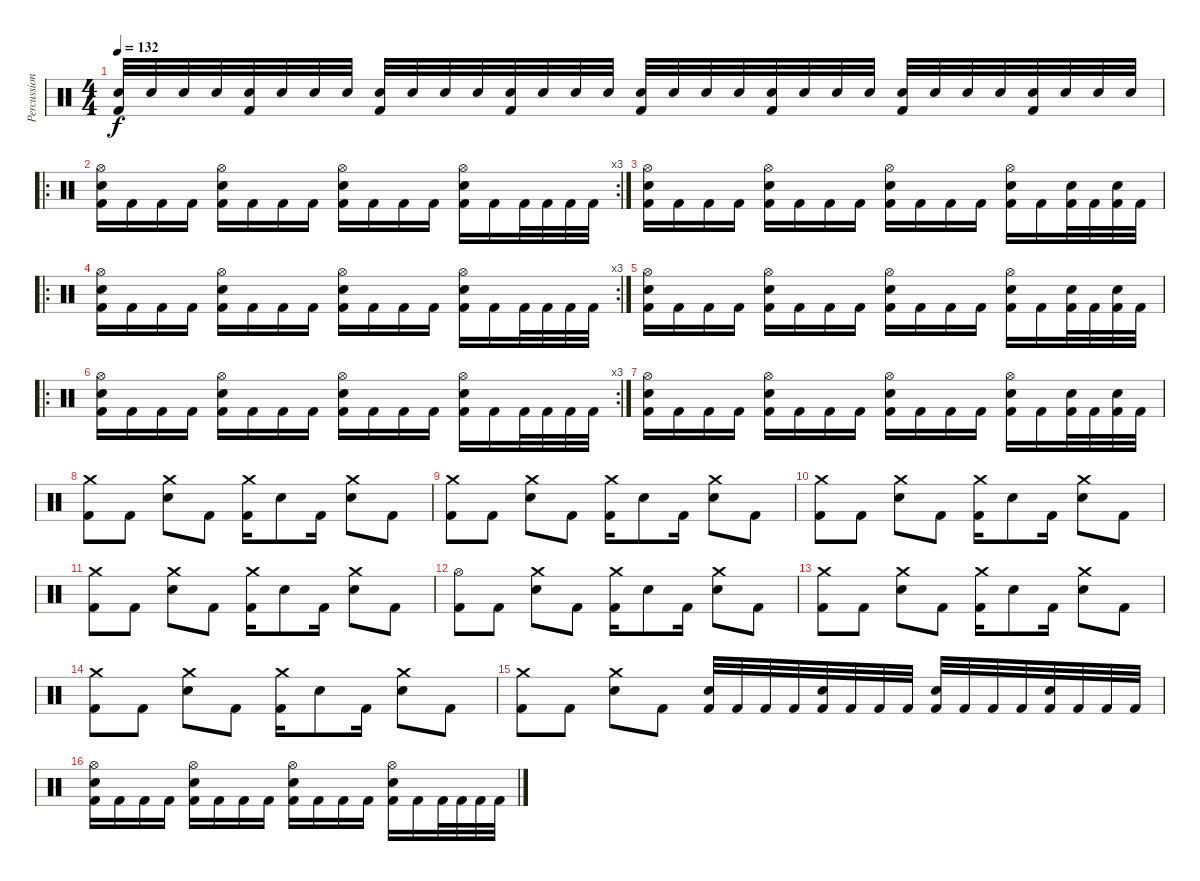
\track ("Percussion" "Percussion") {instrument percussion}
\staff {score}
\articulation defaults
\ts (4 4)
\tempo 132
\clef neutral
\ks c
("Kick (hit) 2" "Electric Snare (hit)").32{dy f} "Electric Snare (hit)".32 "Electric Snare (hit)".32 "Electric Snare (hit)".32 ("Kick (hit) 2" "Electric Snare (hit)").32 "Electric Snare (hit)".32 "Electric Snare (hit)".32 "Electric Snare (hit)".32 ("Kick (hit) 2" "Electric Snare (hit)").32 "Electric Snare (hit)".32 "Electric Snare (hit)".32 "Electric Snare (hit)".32 ("Kick (hit) 2" "Electric Snare (hit)").32 "Electric Snare (hit)".32 "Electric Snare (hit)".32 "Electric Snare (hit)".32 ("Kick (hit) 2" "Electric Snare (hit)").32 "Electric Snare (hit)".32 "Electric Snare (hit)".32 "Electric Snare (hit)".32 ("Kick (hit) 2" "Electric Snare (hit)").32 "Electric Snare (hit)".32 "Electric Snare (hit)".32 "Electric Snare (hit)".32 ("Kick (hit) 2" "Electric Snare (hit)").32 "Electric Snare (hit)".32 "Electric Snare (hit)".32 "Electric Snare (hit)".32 ("Kick (hit) 2" "Electric Snare (hit)").32 "Electric Snare (hit)".32 "Electric Snare (hit)".32 "Electric Snare (hit)".32 |
\ro
\rc 3
("Kick (hit) 2" "Electric Snare (hit)" "Hi-Hat (open)").16 "Kick (hit) 2".16 "Kick (hit) 2".16 "Kick (hit) 2".16 ("Kick (hit) 2" "Electric Snare (hit)" "Hi-Hat (open)").16 "Kick (hit) 2".16 "Kick (hit) 2".16 "Kick (hit) 2".16 ("Kick (hit) 2" "Electric Snare (hit)" "Hi-Hat (open)").16 "Kick (hit) 2".16 "Kick (hit) 2".16 "Kick (hit) 2".16 ("Kick (hit) 2" "Electric Snare (hit)" "Hi-Hat (open)").16 "Kick (hit) 2".16 "Kick (hit) 2".32 "Kick (hit) 2".32 "Kick (hit) 2".32 "Kick (hit) 2".32 |
("Kick (hit) 2" "Electric Snare (hit)" "Hi-Hat (open)").16 "Kick (hit) 2".16 "Kick (hit) 2".16 "Kick (hit) 2".16 ("Kick (hit) 2" "Electric Snare (hit)" "Hi-Hat (open)").16 "Kick (hit) 2".16 "Kick (hit) 2".16 "Kick (hit) 2".16 ("Kick (hit) 2" "Electric Snare (hit)" "Hi-Hat (open)").16 "Kick (hit) 2".16 "Kick (hit) 2".16 "Kick (hit) 2".16 ("Kick (hit) 2" "Electric Snare (hit)" "Hi-Hat (open)").16 "Kick (hit) 2".16 ("Kick (hit) 2" "Electric Snare (hit)").32 "Kick (hit) 2".32 ("Kick (hit) 2" "Electric Snare (hit)").32 "Kick (hit) 2".32 |
\ro
\rc 3
("Kick (hit) 2" "Electric Snare (hit)" "Hi-Hat (open)").16 "Kick (hit) 2".16 "Kick (hit) 2".16 "Kick (hit) 2".16 ("Kick (hit) 2" "Electric Snare (hit)" "Hi-Hat (open)").16 "Kick (hit) 2".16 "Kick (hit) 2".16 "Kick (hit) 2".16 ("Kick (hit) 2" "Electric Snare (hit)" "Hi-Hat (open)").16 "Kick (hit) 2".16 "Kick (hit) 2".16 "Kick (hit) 2".16 ("Kick (hit) 2" "Electric Snare (hit)" "Hi-Hat (open)").16 "Kick (hit) 2".16 "Kick (hit) 2".32 "Kick (hit) 2".32 "Kick (hit) 2".32 "Kick (hit) 2".32 |
("Kick (hit) 2" "Electric Snare (hit)" "Hi-Hat (open)").16 "Kick (hit) 2".16 "Kick (hit) 2".16 "Kick (hit) 2".16 ("Kick (hit) 2" "Electric Snare (hit)" "Hi-Hat (open)").16 "Kick (hit) 2".16 "Kick (hit) 2".16 "Kick (hit) 2".16 ("Kick (hit) 2" "Electric Snare (hit)" "Hi-Hat (open)").16 "Kick (hit) 2".16 "Kick (hit) 2".16 "Kick (hit) 2".16 ("Kick (hit) 2" "Electric Snare (hit)" "Hi-Hat (open)").16 "Kick (hit) 2".16 ("Kick (hit) 2" "Electric Snare (hit)").32 "Kick (hit) 2".32 ("Kick (hit) 2" "Electric Snare (hit)").32 "Kick (hit) 2".32 |
\ro
\rc 3
("Kick (hit) 2" "Electric Snare (hit)" "Hi-Hat (open)").16 "Kick (hit) 2".16 "Kick (hit) 2".16 "Kick (hit) 2".16 ("Kick (hit) 2" "Electric Snare (hit)" "Hi-Hat (open)").16 "Kick (hit) 2".16 "Kick (hit) 2".16 "Kick (hit) 2".16 ("Kick (hit) 2" "Electric Snare (hit)" "Hi-Hat (open)").16 "Kick (hit) 2".16 "Kick (hit) 2".16 "Kick (hit) 2".16 ("Kick (hit) 2" "Electric Snare (hit)" "Hi-Hat (open)").16 "Kick (hit) 2".16 "Kick (hit) 2".32 "Kick (hit) 2".32 "Kick (hit) 2".32 "Kick (hit) 2".32 |
("Kick (hit) 2" "Electric Snare (hit)" "Hi-Hat (open)").16 "Kick (hit) 2".16 "Kick (hit) 2".16 "Kick (hit) 2".16 ("Kick (hit) 2" "Electric Snare (hit)" "Hi-Hat (open)").16 "Kick (hit) 2".16 "Kick (hit) 2".16 "Kick (hit) 2".16 ("Kick (hit) 2" "Electric Snare (hit)" "Hi-Hat (open)").16 "Kick (hit) 2".16 "Kick (hit) 2".16 "Kick (hit) 2".16 ("Kick (hit) 2" "Electric Snare (hit)" "Hi-Hat (open)").16 "Kick (hit) 2".16 ("Kick (hit) 2" "Electric Snare (hit)").32 "Kick (hit) 2".32 ("Kick (hit) 2" "Electric Snare (hit)").32 "Kick (hit) 2".32 |
("Kick (hit) 2" "Crash medium (hit)").8 "Kick (hit) 2".8 ("Electric Snare (hit)" "Crash medium (hit)").8 "Kick (hit) 2".8 ("Kick (hit) 2" "Crash medium (hit)").16 "Electric Snare (hit)".8 "Kick (hit) 2".16 ("Electric Snare (hit)" "Crash medium (hit)").8 "Kick (hit) 2".8 |
("Kick (hit) 2" "Crash medium (hit)").8 "Kick (hit) 2".8 ("Electric Snare (hit)" "Crash medium (hit)").8 "Kick (hit) 2".8 ("Kick (hit) 2" "Crash medium (hit)").16 "Electric Snare (hit)".8 "Kick (hit) 2".16 ("Electric Snare (hit)" "Crash medium (hit)").8 "Kick (hit) 2".8 |
("Kick (hit) 2" "Crash medium (hit)").8 "Kick (hit) 2".8 ("Electric Snare (hit)" "Crash medium (hit)").8 "Kick (hit) 2".8 ("Kick (hit) 2" "Crash medium (hit)").16 "Electric Snare (hit)".8 "Kick (hit) 2".16 ("Electric Snare (hit)" "Crash medium (hit)").8 "Kick (hit) 2".8 |
("Kick (hit) 2" "Crash medium (hit)").8 "Kick (hit) 2".8 ("Electric Snare (hit)" "Crash medium (hit)").8 "Kick (hit) 2".8 ("Kick (hit) 2" "Crash medium (hit)").16 "Electric Snare (hit)".8 "Kick (hit) 2".16 ("Electric Snare (hit)" "Crash medium (hit)").8 "Kick (hit) 2".8 |
("Kick (hit) 2" "Hi-Hat (open)").8 "Kick (hit) 2".8 ("Electric Snare (hit)" "Crash medium (hit)").8 "Kick (hit) 2".8 ("Kick (hit) 2" "Crash medium (hit)").16 "Electric Snare (hit)".8 "Kick (hit) 2".16 ("Electric Snare (hit)" "Crash medium (hit)").8 "Kick (hit) 2".8 |
("Kick (hit) 2" "Crash medium (hit)").8 "Kick (hit) 2".8 ("Electric Snare (hit)" "Crash medium (hit)").8 "Kick (hit) 2".8 ("Kick (hit) 2" "Crash medium (hit)").16 "Electric Snare (hit)".8 "Kick (hit) 2".16 ("Electric Snare (hit)" "Crash medium (hit)").8 "Kick (hit) 2".8 |
("Kick (hit) 2" "Crash medium (hit)").8 "Kick (hit) 2".8 ("Electric Snare (hit)" "Crash medium (hit)").8 "Kick (hit) 2".8 ("Kick (hit) 2" "Crash medium (hit)").16 "Electric Snare (hit)".8 "Kick (hit) 2".16 ("Electric Snare (hit)" "Crash medium (hit)").8 "Kick (hit) 2".8 |
("Kick (hit) 2" "Crash medium (hit)").8 "Kick (hit) 2".8 ("Electric Snare (hit)" "Crash medium (hit)").8 "Kick (hit) 2".8 ("Kick (hit) 2" "Electric Snare (hit)").32 "Kick (hit) 2".32 "Kick (hit) 2".32 "Kick (hit) 2".32 ("Kick (hit) 2" "Electric Snare (hit)").32 "Kick (hit) 2".32 "Kick (hit) 2".32 "Kick (hit) 2".32 ("Kick (hit) 2" "Electric Snare (hit)").32 "Kick (hit) 2".32 "Kick (hit) 2".32 "Kick (hit) 2".32 ("Kick (hit) 2" "Electric Snare (hit)").32 "Kick (hit) 2".32 "Kick (hit) 2".32 "Kick (hit) 2".32 |
("Kick (hit) 2" "Electric Snare (hit)" "Hi-Hat (open)").16 "Kick (hit) 2".16 "Kick (hit) 2".16 "Kick (hit) 2".16 ("Kick (hit) 2" "Electric Snare (hit)" "Hi-Hat (open)").16 "Kick (hit) 2".16 "Kick (hit) 2".16 "Kick (hit) 2".16 ("Kick (hit) 2" "Electric Snare (hit)" "Hi-Hat (open)").16 "Kick (hit) 2".16 "Kick (hit) 2".16 "Kick (hit) 2".16 ("Kick (hit) 2" "Electric Snare (hit)" "Hi-Hat (open)").16 "Kick (hit) 2".16 "Kick (hit) 2".32 "Kick (hit) 2".32 "Kick (hit) 2".32 "Kick (hit) 2".32
